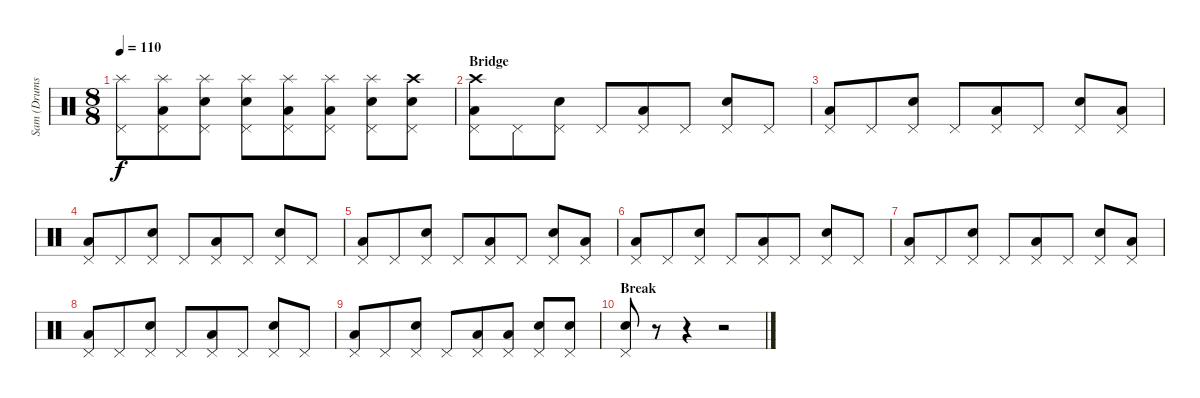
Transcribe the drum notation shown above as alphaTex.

\track ("Sam (Drums)" "Sam (Drums") {instrument percussion}
\staff {score}
\articulation defaults
\ts (8 8)
\tempo 110
\clef neutral
\ks c
("Splash (hit)" "Pedal Hi-Hat (hit)").8{dy f} ("Splash (hit)" "Low Tom (hit)" "Pedal Hi-Hat (hit)").8 ("Splash (hit)" "Snare (hit) 2" "Pedal Hi-Hat (hit)").8 ("Splash (hit)" "Snare (hit) 2" "Pedal Hi-Hat (hit)").8 ("Splash (hit)" "Low Tom (hit)" "Pedal Hi-Hat (hit)").8 ("Splash (hit)" "Low Tom (hit)" "Pedal Hi-Hat (hit)").8 ("Splash (hit)" "Snare (hit) 2" "Pedal Hi-Hat (hit)").8 ("Crash high (hit)" "Snare (hit) 2" "Pedal Hi-Hat (hit)").8 |
\section ("" "Bridge")
("Crash high (hit)" "Low Tom (hit)" "Pedal Hi-Hat (hit)").8 "Pedal Hi-Hat (hit)".8 ("Snare (hit) 2" "Pedal Hi-Hat (hit)").8 "Pedal Hi-Hat (hit)".8 ("Low Tom (hit)" "Pedal Hi-Hat (hit)").8 "Pedal Hi-Hat (hit)".8 ("Snare (hit) 2" "Pedal Hi-Hat (hit)").8 "Pedal Hi-Hat (hit)".8 |
("Low Tom (hit)" "Pedal Hi-Hat (hit)").8 "Pedal Hi-Hat (hit)".8 ("Snare (hit) 2" "Pedal Hi-Hat (hit)").8 "Pedal Hi-Hat (hit)".8 ("Low Tom (hit)" "Pedal Hi-Hat (hit)").8 "Pedal Hi-Hat (hit)".8 ("Snare (hit) 2" "Pedal Hi-Hat (hit)").8 ("Low Tom (hit)" "Pedal Hi-Hat (hit)").8 |
("Low Tom (hit)" "Pedal Hi-Hat (hit)").8 "Pedal Hi-Hat (hit)".8 ("Snare (hit) 2" "Pedal Hi-Hat (hit)").8 "Pedal Hi-Hat (hit)".8 ("Low Tom (hit)" "Pedal Hi-Hat (hit)").8 "Pedal Hi-Hat (hit)".8 ("Snare (hit) 2" "Pedal Hi-Hat (hit)").8 "Pedal Hi-Hat (hit)".8 |
("Low Tom (hit)" "Pedal Hi-Hat (hit)").8 "Pedal Hi-Hat (hit)".8 ("Snare (hit) 2" "Pedal Hi-Hat (hit)").8 "Pedal Hi-Hat (hit)".8 ("Low Tom (hit)" "Pedal Hi-Hat (hit)").8 "Pedal Hi-Hat (hit)".8 ("Snare (hit) 2" "Pedal Hi-Hat (hit)").8 ("Low Tom (hit)" "Pedal Hi-Hat (hit)").8 |
("Low Tom (hit)" "Pedal Hi-Hat (hit)").8 "Pedal Hi-Hat (hit)".8 ("Snare (hit) 2" "Pedal Hi-Hat (hit)").8 "Pedal Hi-Hat (hit)".8 ("Low Tom (hit)" "Pedal Hi-Hat (hit)").8 "Pedal Hi-Hat (hit)".8 ("Snare (hit) 2" "Pedal Hi-Hat (hit)").8 "Pedal Hi-Hat (hit)".8 |
("Low Tom (hit)" "Pedal Hi-Hat (hit)").8 "Pedal Hi-Hat (hit)".8 ("Snare (hit) 2" "Pedal Hi-Hat (hit)").8 "Pedal Hi-Hat (hit)".8 ("Low Tom (hit)" "Pedal Hi-Hat (hit)").8 "Pedal Hi-Hat (hit)".8 ("Snare (hit) 2" "Pedal Hi-Hat (hit)").8 ("Low Tom (hit)" "Pedal Hi-Hat (hit)").8 |
("Low Tom (hit)" "Pedal Hi-Hat (hit)").8 "Pedal Hi-Hat (hit)".8 ("Snare (hit) 2" "Pedal Hi-Hat (hit)").8 "Pedal Hi-Hat (hit)".8 ("Low Tom (hit)" "Pedal Hi-Hat (hit)").8 "Pedal Hi-Hat (hit)".8 ("Snare (hit) 2" "Pedal Hi-Hat (hit)").8 "Pedal Hi-Hat (hit)".8 |
("Low Tom (hit)" "Pedal Hi-Hat (hit)").8 "Pedal Hi-Hat (hit)".8 ("Snare (hit) 2" "Pedal Hi-Hat (hit)").8 "Pedal Hi-Hat (hit)".8 ("Low Tom (hit)" "Pedal Hi-Hat (hit)").8 ("Low Tom (hit)" "Pedal Hi-Hat (hit)").8 ("Snare (hit) 2" "Pedal Hi-Hat (hit)").8 ("Snare (hit) 2" "Pedal Hi-Hat (hit)").8 |
\section ("" "Break")
("Snare (hit) 2" "Pedal Hi-Hat (hit)").8 r.8 r.4 r.2
